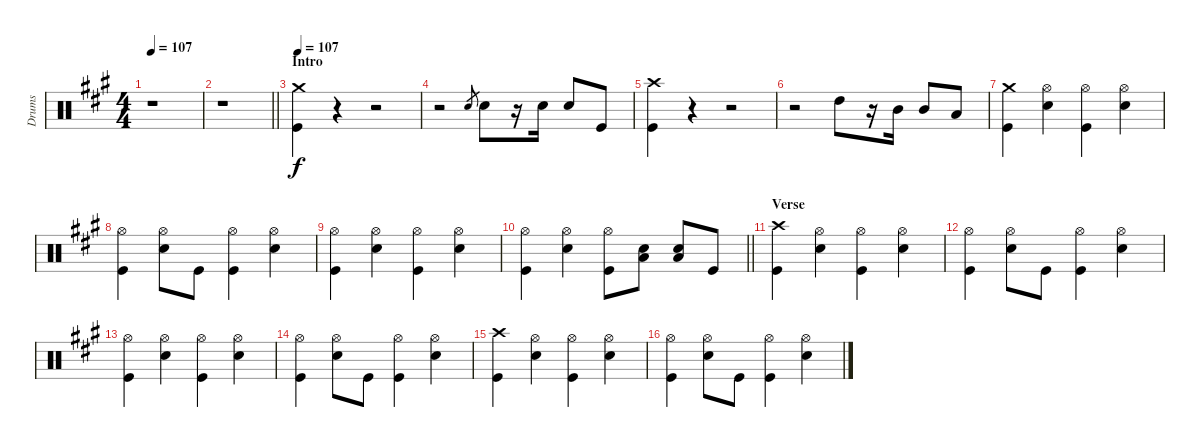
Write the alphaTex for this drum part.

\track ("Drums" "Drums") {instrument percussion}
\staff {score}
\articulation defaults
\ts (4 4)
\tempo 107
\clef neutral
\ks a
r.1{dy f} |
\barLineRight lightlight
r.1 |
\section ("" "Intro")
\tempo 107
("Crash medium (hit)" "Kick (hit)").4 r.4 r.2 |
r.2 "Snare (hit) 2".8{gr} "Snare (hit) 2".8 r.16 "Snare (hit) 2".16 "Snare (hit) 2".8 "Kick (hit)".8 |
("Crash high (hit)" "Kick (hit)").4 r.4 r.2 |
r.2 "High Tom (hit)".8 r.16 "Mid Tom (hit)".16 "Mid Tom (hit)".8 "Low Tom (hit)".8 |
("Crash medium (hit)" "Kick (hit)").4 ("Hi-Hat (open)" "Snare (hit) 2").4 ("Hi-Hat (open)" "Kick (hit)").4 ("Hi-Hat (open)" "Snare (hit) 2").4 |
("Hi-Hat (open)" "Kick (hit)").4 ("Hi-Hat (open)" "Snare (hit) 2").8 "Kick (hit)".8 ("Hi-Hat (open)" "Kick (hit)").4 ("Hi-Hat (open)" "Snare (hit) 2").4 |
("Hi-Hat (open)" "Kick (hit)").4 ("Hi-Hat (open)" "Snare (hit) 2").4 ("Hi-Hat (open)" "Kick (hit)").4 ("Hi-Hat (open)" "Snare (hit) 2").4 |
\barLineRight lightlight
("Hi-Hat (open)" "Kick (hit)").4 ("Hi-Hat (open)" "Snare (hit) 2").4 ("Hi-Hat (open)" "Kick (hit)").8 ("Low Tom (hit)" "Snare (hit) 2").8 ("Low Tom (hit)" "Snare (hit) 2").8 "Kick (hit)".8 |
\section ("" "Verse ")
("Crash high (hit)" "Kick (hit)").4 ("Hi-Hat (open)" "Snare (hit) 2").4 ("Hi-Hat (open)" "Kick (hit)").4 ("Hi-Hat (open)" "Snare (hit) 2").4 |
("Hi-Hat (open)" "Kick (hit)").4 ("Hi-Hat (open)" "Snare (hit) 2").8 "Kick (hit)".8 ("Hi-Hat (open)" "Kick (hit)").4 ("Hi-Hat (open)" "Snare (hit) 2").4 |
("Hi-Hat (open)" "Kick (hit)").4 ("Hi-Hat (open)" "Snare (hit) 2").4 ("Hi-Hat (open)" "Kick (hit)").4 ("Hi-Hat (open)" "Snare (hit) 2").4 |
("Hi-Hat (open)" "Kick (hit)").4 ("Hi-Hat (open)" "Snare (hit) 2").8 "Kick (hit)".8 ("Hi-Hat (open)" "Kick (hit)").4 ("Hi-Hat (open)" "Snare (hit) 2").4 |
("Crash high (hit)" "Kick (hit)").4 ("Hi-Hat (open)" "Snare (hit) 2").4 ("Hi-Hat (open)" "Kick (hit)").4 ("Hi-Hat (open)" "Snare (hit) 2").4 |
("Hi-Hat (open)" "Kick (hit)").4 ("Hi-Hat (open)" "Snare (hit) 2").8 "Kick (hit)".8 ("Hi-Hat (open)" "Kick (hit)").4 ("Hi-Hat (open)" "Snare (hit) 2").4
